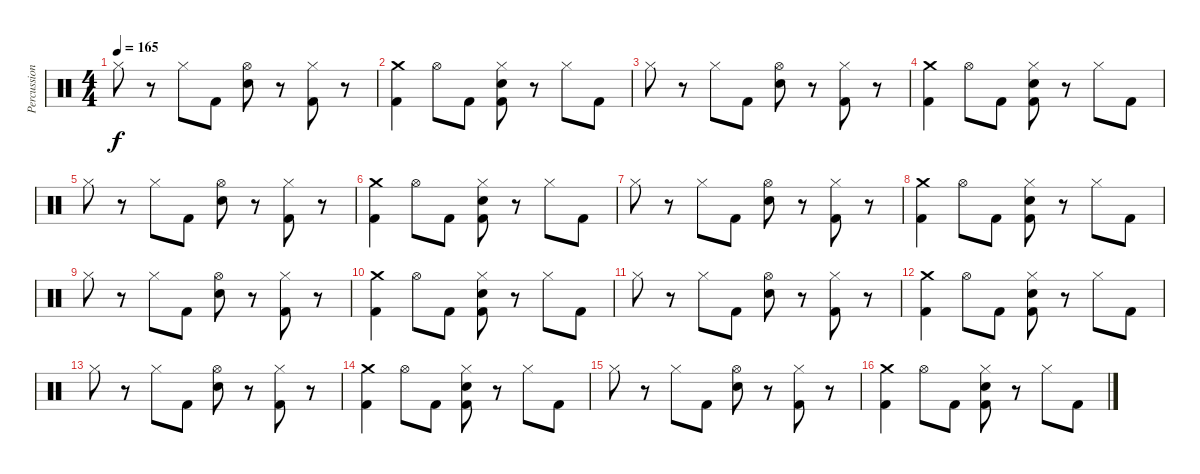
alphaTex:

\track ("Percussion" "Percussion") {instrument percussion}
\staff {score}
\articulation defaults
\ts (4 4)
\tempo 165
\clef neutral
\ks c "Hi-Hat (closed)".8{dy f}
r.8 "Hi-Hat (closed)".8 "Kick (hit) 2".8 ("Hi-Hat (open)" "Electric Snare (hit)").8 r.8 ("Hi-Hat (closed)" "Kick (hit) 2").8 r.8 |
("Crash medium (hit)" "Kick (hit) 2").4 "Hi-Hat (open)".8 "Kick (hit) 2".8 ("Hi-Hat (closed)" "Electric Snare (hit)" "Kick (hit) 2").8 r.8 "Hi-Hat (closed)".8 "Kick (hit) 2".8 |
"Hi-Hat (closed)".8 r.8 "Hi-Hat (closed)".8 "Kick (hit) 2".8 ("Hi-Hat (open)" "Electric Snare (hit)").8 r.8 ("Hi-Hat (closed)" "Kick (hit) 2").8 r.8 |
("Crash medium (hit)" "Kick (hit) 2").4 "Hi-Hat (open)".8 "Kick (hit) 2".8 ("Hi-Hat (closed)" "Electric Snare (hit)" "Kick (hit) 2").8 r.8 "Hi-Hat (closed)".8 "Kick (hit) 2".8 |
"Hi-Hat (closed)".8 r.8 "Hi-Hat (closed)".8 "Kick (hit) 2".8 ("Hi-Hat (open)" "Electric Snare (hit)").8 r.8 ("Hi-Hat (closed)" "Kick (hit) 2").8 r.8 |
("Crash medium (hit)" "Kick (hit) 2").4 "Hi-Hat (open)".8 "Kick (hit) 2".8 ("Hi-Hat (closed)" "Electric Snare (hit)" "Kick (hit) 2").8 r.8 "Hi-Hat (closed)".8 "Kick (hit) 2".8 |
"Hi-Hat (closed)".8 r.8 "Hi-Hat (closed)".8 "Kick (hit) 2".8 ("Hi-Hat (open)" "Electric Snare (hit)").8 r.8 ("Hi-Hat (closed)" "Kick (hit) 2").8 r.8 |
("Crash medium (hit)" "Kick (hit) 2").4 "Hi-Hat (open)".8 "Kick (hit) 2".8 ("Hi-Hat (closed)" "Electric Snare (hit)" "Kick (hit) 2").8 r.8 "Hi-Hat (closed)".8 "Kick (hit) 2".8 |
"Hi-Hat (closed)".8 r.8 "Hi-Hat (closed)".8 "Kick (hit) 2".8 ("Hi-Hat (open)" "Electric Snare (hit)").8 r.8 ("Hi-Hat (closed)" "Kick (hit) 2").8 r.8 |
("Crash medium (hit)" "Kick (hit) 2").4 "Hi-Hat (open)".8 "Kick (hit) 2".8 ("Hi-Hat (closed)" "Electric Snare (hit)" "Kick (hit) 2").8 r.8 "Hi-Hat (closed)".8 "Kick (hit) 2".8 |
"Hi-Hat (closed)".8 r.8 "Hi-Hat (closed)".8 "Kick (hit) 2".8 ("Hi-Hat (open)" "Electric Snare (hit)").8 r.8 ("Hi-Hat (closed)" "Kick (hit) 2").8 r.8 |
("Crash medium (hit)" "Kick (hit) 2").4 "Hi-Hat (open)".8 "Kick (hit) 2".8 ("Hi-Hat (closed)" "Electric Snare (hit)" "Kick (hit) 2").8 r.8 "Hi-Hat (closed)".8 "Kick (hit) 2".8 |
"Hi-Hat (closed)".8 r.8 "Hi-Hat (closed)".8 "Kick (hit) 2".8 ("Hi-Hat (open)" "Electric Snare (hit)").8 r.8 ("Hi-Hat (closed)" "Kick (hit) 2").8 r.8 |
("Crash medium (hit)" "Kick (hit) 2").4 "Hi-Hat (open)".8 "Kick (hit) 2".8 ("Hi-Hat (closed)" "Electric Snare (hit)" "Kick (hit) 2").8 r.8 "Hi-Hat (closed)".8 "Kick (hit) 2".8 |
"Hi-Hat (closed)".8 r.8 "Hi-Hat (closed)".8 "Kick (hit) 2".8 ("Hi-Hat (open)" "Electric Snare (hit)").8 r.8 ("Hi-Hat (closed)" "Kick (hit) 2").8 r.8 |
("Crash medium (hit)" "Kick (hit) 2").4 "Hi-Hat (open)".8 "Kick (hit) 2".8 ("Hi-Hat (closed)" "Electric Snare (hit)" "Kick (hit) 2").8 r.8 "Hi-Hat (closed)".8 "Kick (hit) 2".8
